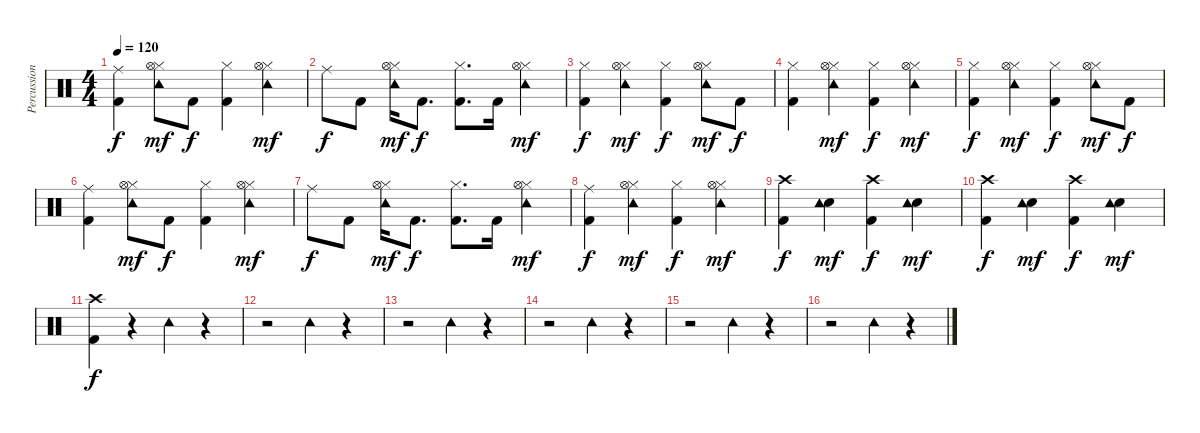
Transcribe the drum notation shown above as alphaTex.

\track ("Percussion" "Percussion") {instrument percussion}
\staff {score}
\articulation defaults
\ts (4 4)
\tempo 120
\clef neutral
\ks c
("Kick (hit) 2" "Ride (middle)").4{dy f} ("Hi-Hat (closed)" "Hi-Hat (open)" "Tambourine (hit)").8{dy mf} "Kick (hit) 2".8{dy f} ("Kick (hit) 2" "Hi-Hat (closed)").4 ("Hi-Hat (closed)" "Hi-Hat (open)" "Tambourine (hit)").4{dy mf} |
"Ride (middle)".8{dy f} "Kick (hit) 2".8 ("Hi-Hat (closed)" "Hi-Hat (open)" "Tambourine (hit)").16{dy mf} "Kick (hit) 2".8{d dy f} ("Kick (hit) 2" "Hi-Hat (closed)").8{d} "Kick (hit) 2".16 ("Hi-Hat (closed)" "Hi-Hat (open)" "Tambourine (hit)").4{dy mf} |
("Kick (hit) 2" "Hi-Hat (closed)").4{dy f} ("Hi-Hat (closed)" "Hi-Hat (open)" "Tambourine (hit)").4{dy mf} ("Kick (hit) 2" "Hi-Hat (closed)").4{dy f} ("Hi-Hat (closed)" "Hi-Hat (open)" "Tambourine (hit)").8{dy mf} "Kick (hit) 2".8{dy f} |
("Kick (hit) 2" "Hi-Hat (closed)").4 ("Hi-Hat (closed)" "Hi-Hat (open)" "Tambourine (hit)").4{dy mf} ("Kick (hit) 2" "Hi-Hat (closed)").4{dy f} ("Hi-Hat (closed)" "Hi-Hat (open)" "Tambourine (hit)").4{dy mf} |
("Kick (hit) 2" "Hi-Hat (closed)").4{dy f} ("Hi-Hat (closed)" "Hi-Hat (open)" "Tambourine (hit)").4{dy mf} ("Kick (hit) 2" "Hi-Hat (closed)").4{dy f} ("Hi-Hat (closed)" "Hi-Hat (open)" "Tambourine (hit)").8{dy mf} "Kick (hit) 2".8{dy f} |
("Kick (hit) 2" "Ride (middle)").4 ("Hi-Hat (closed)" "Hi-Hat (open)" "Tambourine (hit)").8{dy mf} "Kick (hit) 2".8{dy f} ("Kick (hit) 2" "Hi-Hat (closed)").4 ("Hi-Hat (closed)" "Hi-Hat (open)" "Tambourine (hit)").4{dy mf} |
"Ride (middle)".8{dy f} "Kick (hit) 2".8 ("Hi-Hat (closed)" "Hi-Hat (open)" "Tambourine (hit)").16{dy mf} "Kick (hit) 2".8{d dy f} ("Kick (hit) 2" "Hi-Hat (closed)").8{d} "Kick (hit) 2".16 ("Hi-Hat (closed)" "Hi-Hat (open)" "Tambourine (hit)").4{dy mf} |
("Kick (hit) 2" "Ride (middle)").4{dy f} ("Hi-Hat (closed)" "Hi-Hat (open)" "Tambourine (hit)").4{dy mf} ("Kick (hit) 2" "Hi-Hat (closed)").4{dy f} ("Hi-Hat (closed)" "Hi-Hat (open)" "Tambourine (hit)").4{dy mf} |
("Kick (hit) 2" "Crash high (hit)").4{dy f} ("Snare (hit) 2" "Tambourine (hit)").4{dy mf} ("Kick (hit) 2" "Crash high (hit)").4{dy f} ("Snare (hit) 2" "Tambourine (hit)").4{dy mf} |
("Kick (hit) 2" "Crash high (hit)").4{dy f} ("Snare (hit) 2" "Tambourine (hit)").4{dy mf} ("Kick (hit) 2" "Crash high (hit)").4{dy f} ("Snare (hit) 2" "Tambourine (hit)").4{dy mf} |
("Kick (hit) 2" "Crash high (hit)").4{dy f} r.4 "Tambourine (hit)".4 r.4 |
r.2 "Tambourine (hit)".4 r.4 |
r.2 "Tambourine (hit)".4 r.4 |
r.2 "Tambourine (hit)".4 r.4 |
r.2 "Tambourine (hit)".4 r.4 |
r.2 "Tambourine (hit)".4 r.4
